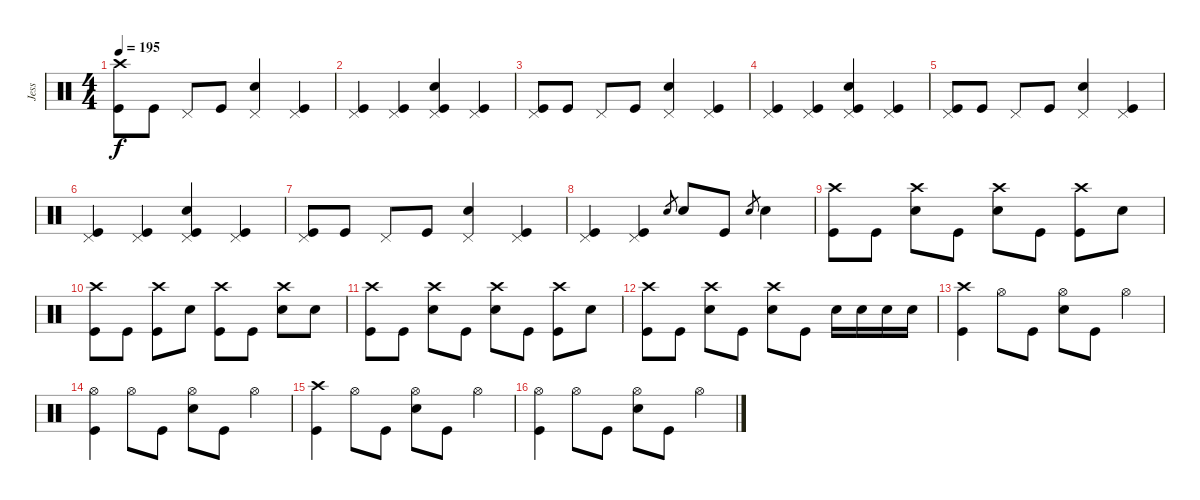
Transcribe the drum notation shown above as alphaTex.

\track ("Jess" "Jess") {instrument percussion}
\staff {score}
\articulation defaults
\ts (4 4)
\tempo 195
\clef neutral
\ks c
("Crash high (hit)" "Kick (hit)").8{dy f} "Kick (hit)".8 "Pedal Hi-Hat (hit)".8 "Kick (hit)".8 ("Pedal Hi-Hat (hit)" "Electric Snare (hit)").4 ("Pedal Hi-Hat (hit)" "Kick (hit)").4 |
("Pedal Hi-Hat (hit)" "Kick (hit)").4 ("Pedal Hi-Hat (hit)" "Kick (hit)").4 ("Pedal Hi-Hat (hit)" "Electric Snare (hit)" "Kick (hit)").4 ("Pedal Hi-Hat (hit)" "Kick (hit)").4 |
("Pedal Hi-Hat (hit)" "Kick (hit)").8 "Kick (hit)".8 "Pedal Hi-Hat (hit)".8 "Kick (hit)".8 ("Pedal Hi-Hat (hit)" "Electric Snare (hit)").4 ("Pedal Hi-Hat (hit)" "Kick (hit)").4 |
("Pedal Hi-Hat (hit)" "Kick (hit)").4 ("Pedal Hi-Hat (hit)" "Kick (hit)").4 ("Pedal Hi-Hat (hit)" "Electric Snare (hit)" "Kick (hit)").4 ("Pedal Hi-Hat (hit)" "Kick (hit)").4 |
("Pedal Hi-Hat (hit)" "Kick (hit)").8 "Kick (hit)".8 "Pedal Hi-Hat (hit)".8 "Kick (hit)".8 ("Pedal Hi-Hat (hit)" "Electric Snare (hit)").4 ("Pedal Hi-Hat (hit)" "Kick (hit)").4 |
("Pedal Hi-Hat (hit)" "Kick (hit)").4 ("Pedal Hi-Hat (hit)" "Kick (hit)").4 ("Pedal Hi-Hat (hit)" "Electric Snare (hit)" "Kick (hit)").4 ("Pedal Hi-Hat (hit)" "Kick (hit)").4 |
("Pedal Hi-Hat (hit)" "Kick (hit)").8 "Kick (hit)".8 "Pedal Hi-Hat (hit)".8 "Kick (hit)".8 ("Pedal Hi-Hat (hit)" "Electric Snare (hit)").4 ("Pedal Hi-Hat (hit)" "Kick (hit)").4 |
("Pedal Hi-Hat (hit)" "Kick (hit)").4 ("Pedal Hi-Hat (hit)" "Kick (hit)").4 "Electric Snare (hit)".8{gr} "Electric Snare (hit)".8 "Kick (hit)".8 "Electric Snare (hit)".8{gr} "Electric Snare (hit)".4 |
("Crash high (hit)" "Kick (hit)").8 "Kick (hit)".8 ("Crash high (hit)" "Electric Snare (hit)").8 "Kick (hit)".8 ("Crash high (hit)" "Electric Snare (hit)").8 "Kick (hit)".8 ("Crash high (hit)" "Kick (hit)").8 "Electric Snare (hit)".8 |
("Crash high (hit)" "Kick (hit)").8 "Kick (hit)".8 ("Crash high (hit)" "Kick (hit)").8 "Electric Snare (hit)".8 ("Crash high (hit)" "Kick (hit)").8 "Kick (hit)".8 ("Crash high (hit)" "Electric Snare (hit)").8 "Electric Snare (hit)".8 |
("Crash high (hit)" "Kick (hit)").8 "Kick (hit)".8 ("Crash high (hit)" "Electric Snare (hit)").8 "Kick (hit)".8 ("Crash high (hit)" "Electric Snare (hit)").8 "Kick (hit)".8 ("Crash high (hit)" "Kick (hit)").8 "Electric Snare (hit)".8 |
("Crash high (hit)" "Kick (hit)").8 "Kick (hit)".8 ("Crash high (hit)" "Electric Snare (hit)").8 "Kick (hit)".8 ("Crash high (hit)" "Electric Snare (hit)").8 "Kick (hit)".8 "Electric Snare (hit)".16 "Electric Snare (hit)".16 "Electric Snare (hit)".16 "Electric Snare (hit)".16 |
("Crash high (hit)" "Kick (hit)").4 "Hi-Hat (open)".8 "Kick (hit)".8 ("Hi-Hat (open)" "Electric Snare (hit)").8 "Kick (hit)".8 "Hi-Hat (open)".4 |
("Hi-Hat (open)" "Kick (hit)").4 "Hi-Hat (open)".8 "Kick (hit)".8 ("Hi-Hat (open)" "Electric Snare (hit)").8 "Kick (hit)".8 "Hi-Hat (open)".4 |
("Crash high (hit)" "Kick (hit)").4 "Hi-Hat (open)".8 "Kick (hit)".8 ("Hi-Hat (open)" "Electric Snare (hit)").8 "Kick (hit)".8 "Hi-Hat (open)".4 |
("Hi-Hat (open)" "Kick (hit)").4 "Hi-Hat (open)".8 "Kick (hit)".8 ("Hi-Hat (open)" "Electric Snare (hit)").8 "Kick (hit)".8 "Hi-Hat (open)".4
